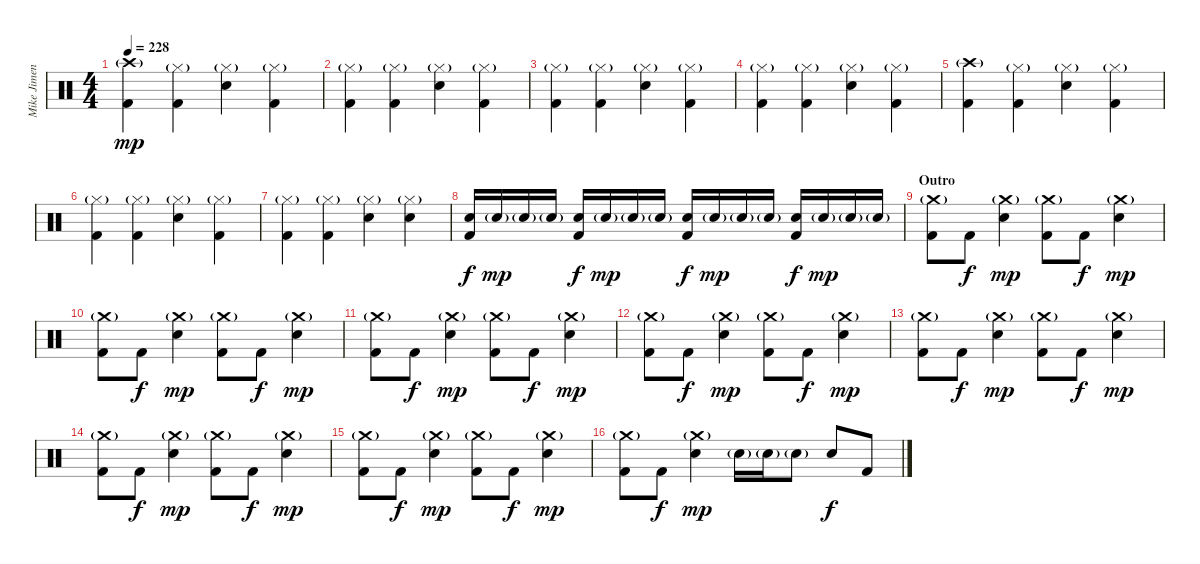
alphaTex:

\track ("Mike Jimenez" "Mike Jimen") {instrument percussion}
\staff {score}
\articulation defaults
\ts (4 4)
\tempo 228
\clef neutral
\ks c
("Crash high (hit)"{g} "Kick (hit) 2").4{dy mp} ("Hi-Hat (closed)"{g} "Kick (hit) 2").4 ("Hi-Hat (closed)"{g} "Electric Snare (hit)").4 ("Hi-Hat (closed)"{g} "Kick (hit) 2").4 |
("Hi-Hat (closed)"{g} "Kick (hit) 2").4 ("Hi-Hat (closed)"{g} "Kick (hit) 2").4 ("Hi-Hat (closed)"{g} "Electric Snare (hit)").4 ("Hi-Hat (closed)"{g} "Kick (hit) 2").4 |
("Hi-Hat (closed)"{g} "Kick (hit) 2").4 ("Hi-Hat (closed)"{g} "Kick (hit) 2").4 ("Hi-Hat (closed)"{g} "Electric Snare (hit)").4 ("Hi-Hat (closed)"{g} "Kick (hit) 2").4 |
("Hi-Hat (closed)"{g} "Kick (hit) 2").4 ("Hi-Hat (closed)"{g} "Kick (hit) 2").4 ("Hi-Hat (closed)"{g} "Electric Snare (hit)").4 ("Hi-Hat (closed)"{g} "Kick (hit) 2").4 |
("Crash high (hit)"{g} "Kick (hit) 2").4 ("Hi-Hat (closed)"{g} "Kick (hit) 2").4 ("Hi-Hat (closed)"{g} "Electric Snare (hit)").4 ("Hi-Hat (closed)"{g} "Kick (hit) 2").4 |
("Hi-Hat (closed)"{g} "Kick (hit) 2").4 ("Hi-Hat (closed)"{g} "Kick (hit) 2").4 ("Hi-Hat (closed)"{g} "Electric Snare (hit)").4 ("Hi-Hat (closed)"{g} "Kick (hit) 2").4 |
("Hi-Hat (closed)"{g} "Kick (hit) 2").4 ("Hi-Hat (closed)"{g} "Kick (hit) 2").4 ("Hi-Hat (closed)"{g} "Electric Snare (hit)").4 ("Hi-Hat (closed)"{g} "Electric Snare (hit)").4 |
("Electric Snare (hit)" "Kick (hit) 2").16{dy f} "Electric Snare (hit)"{g}.16{dy mp} "Electric Snare (hit)"{g}.16 "Electric Snare (hit)"{g}.16 ("Electric Snare (hit)" "Kick (hit) 2").16{dy f} "Electric Snare (hit)"{g}.16{dy mp} "Electric Snare (hit)"{g}.16 "Electric Snare (hit)"{g}.16 ("Electric Snare (hit)" "Kick (hit) 2").16{dy f} "Electric Snare (hit)"{g}.16{dy mp} "Electric Snare (hit)"{g}.16 "Electric Snare (hit)"{g}.16 ("Electric Snare (hit)" "Kick (hit) 2").16{dy f} "Electric Snare (hit)"{g}.16{dy mp} "Electric Snare (hit)"{g}.16 "Electric Snare (hit)"{g}.16 |
\section ("" "Outro")
("Crash medium (hit)"{g} "Kick (hit) 2").8 "Kick (hit) 2".8{dy f} ("Crash medium (hit)"{g} "Electric Snare (hit)").4{dy mp} ("Crash medium (hit)"{g} "Kick (hit) 2").8 "Kick (hit) 2".8{dy f} ("Crash medium (hit)"{g} "Electric Snare (hit)").4{dy mp} |
("Crash medium (hit)"{g} "Kick (hit) 2").8 "Kick (hit) 2".8{dy f} ("Crash medium (hit)"{g} "Electric Snare (hit)").4{dy mp} ("Crash medium (hit)"{g} "Kick (hit) 2").8 "Kick (hit) 2".8{dy f} ("Crash medium (hit)"{g} "Electric Snare (hit)").4{dy mp} |
("Crash medium (hit)"{g} "Kick (hit) 2").8 "Kick (hit) 2".8{dy f} ("Crash medium (hit)"{g} "Electric Snare (hit)").4{dy mp} ("Crash medium (hit)"{g} "Kick (hit) 2").8 "Kick (hit) 2".8{dy f} ("Crash medium (hit)"{g} "Electric Snare (hit)").4{dy mp} |
("Crash medium (hit)"{g} "Kick (hit) 2").8 "Kick (hit) 2".8{dy f} ("Crash medium (hit)"{g} "Electric Snare (hit)").4{dy mp} ("Crash medium (hit)"{g} "Kick (hit) 2").8 "Kick (hit) 2".8{dy f} ("Crash medium (hit)"{g} "Electric Snare (hit)").4{dy mp} |
("Crash medium (hit)"{g} "Kick (hit) 2").8 "Kick (hit) 2".8{dy f} ("Crash medium (hit)"{g} "Electric Snare (hit)").4{dy mp} ("Crash medium (hit)"{g} "Kick (hit) 2").8 "Kick (hit) 2".8{dy f} ("Crash medium (hit)"{g} "Electric Snare (hit)").4{dy mp} |
("Crash medium (hit)"{g} "Kick (hit) 2").8 "Kick (hit) 2".8{dy f} ("Crash medium (hit)"{g} "Electric Snare (hit)").4{dy mp} ("Crash medium (hit)"{g} "Kick (hit) 2").8 "Kick (hit) 2".8{dy f} ("Crash medium (hit)"{g} "Electric Snare (hit)").4{dy mp} |
("Crash medium (hit)"{g} "Kick (hit) 2").8 "Kick (hit) 2".8{dy f} ("Crash medium (hit)"{g} "Electric Snare (hit)").4{dy mp} ("Crash medium (hit)"{g} "Kick (hit) 2").8 "Kick (hit) 2".8{dy f} ("Crash medium (hit)"{g} "Electric Snare (hit)").4{dy mp} |
("Crash medium (hit)"{g} "Kick (hit) 2").8 "Kick (hit) 2".8{dy f} ("Crash medium (hit)"{g} "Electric Snare (hit)").4{dy mp} "Electric Snare (hit)"{g}.16 "Electric Snare (hit)"{g}.16 "Electric Snare (hit)"{g}.8 "Electric Snare (hit)".8{dy f} "Kick (hit) 2".8
